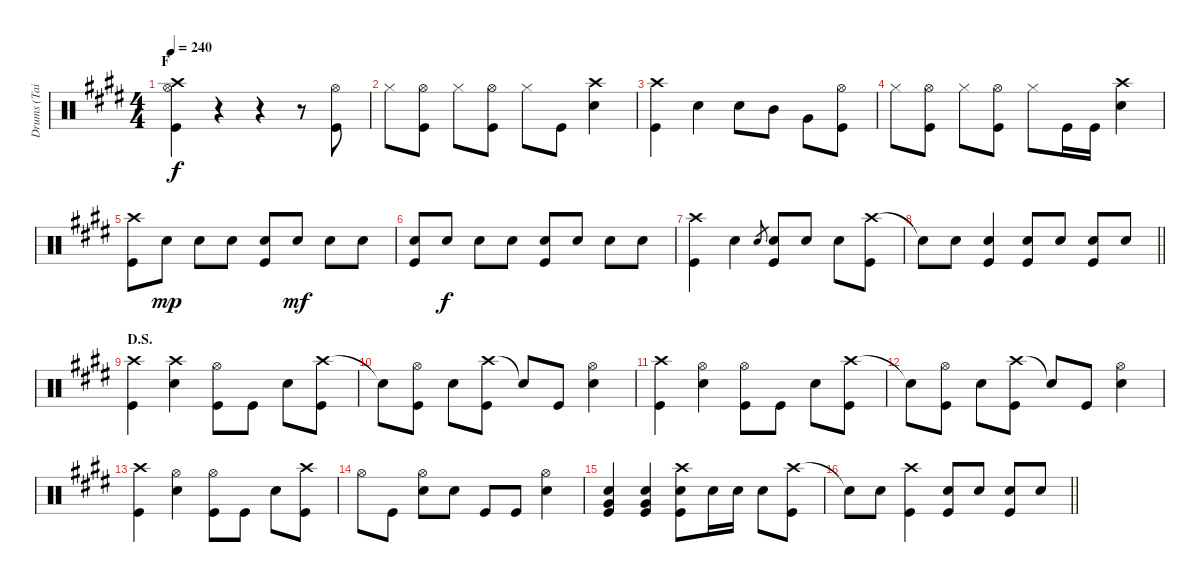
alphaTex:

\track ("Drums (Tainaka Ritsu)" "Drums (Tai") {instrument percussion}
\staff {score}
\articulation defaults
\ts (4 4)
\section ("" "F")
\tempo 240
\clef neutral
\ks e
("Crash high (hit)" "Hi-Hat (open)" "Kick (hit)").4{dy f} r.4 r.4 r.8 ("Hi-Hat (open)" "Kick (hit)").8 |
"Hi-Hat (closed)".8 ("Hi-Hat (open)" "Kick (hit)").8 "Hi-Hat (closed)".8 ("Hi-Hat (open)" "Kick (hit)").8 "Hi-Hat (closed)".8 "Kick (hit)".8 ("Crash high (hit)" "Snare (hit) 2").4 |
("Crash high (hit)" "Kick (hit)").4 "Snare (hit) 2".4 "Snare (hit) 2".8 "Mid Tom (hit)".8 "Very Low Tom (hit)".8 ("Hi-Hat (open)" "Kick (hit)").8 |
"Hi-Hat (closed)".8 ("Hi-Hat (open)" "Kick (hit)").8 "Hi-Hat (closed)".8 ("Hi-Hat (open)" "Kick (hit)").8 "Hi-Hat (closed)".8 "Kick (hit)".16 "Kick (hit)".16 ("Crash high (hit)" "Snare (hit) 2").4 |
("Crash high (hit)" "Kick (hit)").8 "Snare (hit) 2".8{dy mp} "Snare (hit) 2".8 "Snare (hit) 2".8 ("Snare (hit) 2" "Kick (hit)").8 "Snare (hit) 2".8{dy mf} "Snare (hit) 2".8 "Snare (hit) 2".8 |
("Snare (hit) 2" "Kick (hit)").8 "Snare (hit) 2".8{dy f} "Snare (hit) 2".8 "Snare (hit) 2".8 ("Snare (hit) 2" "Kick (hit)").8 "Snare (hit) 2".8 "Snare (hit) 2".8 "Snare (hit) 2".8 |
("Crash high (hit)" "Kick (hit)").4 "Snare (hit) 2".4 "Snare (hit) 2".8{gr} ("Snare (hit) 2" "Kick (hit)").8 "Snare (hit) 2".8 "Snare (hit) 2".8 ("Crash high (hit)" "Kick (hit)").8 |
\barLineRight lightlight "Snare (hit)"{t}.8 "Snare (hit) 2".8
("Snare (hit) 2" "Kick (hit)").4 ("Snare (hit) 2" "Kick (hit)").8 "Snare (hit) 2".8 ("Snare (hit) 2" "Kick (hit)").8 "Snare (hit) 2".8 |
\section ("" "D.S.")
("Crash high (hit)" "Kick (hit)").4 ("Crash high (hit)" "Snare (hit) 2").4 ("Hi-Hat (open)" "Kick (hit)").8 "Kick (hit)".8 "Snare (hit) 2".8 ("Crash high (hit)" "Kick (hit)").8 |
"Snare (hit)"{t}.8 ("Hi-Hat (open)" "Kick (hit)").8 "Snare (hit) 2".8 ("Crash high (hit)" "Kick (hit)").8 "Snare (hit)"{t}.8 "Kick (hit)".8 ("Hi-Hat (open)" "Snare (hit) 2").4 |
("Crash high (hit)" "Kick (hit)").4 ("Hi-Hat (open)" "Snare (hit) 2").4 ("Hi-Hat (open)" "Kick (hit)").8 "Kick (hit)".8 "Snare (hit) 2".8 ("Crash high (hit)" "Kick (hit)").8 |
"Snare (hit)"{t}.8 ("Hi-Hat (open)" "Kick (hit)").8 "Snare (hit) 2".8 ("Crash high (hit)" "Kick (hit)").8 "Snare (hit)"{t}.8 "Kick (hit)".8 ("Hi-Hat (open)" "Snare (hit) 2").4 |
("Crash high (hit)" "Kick (hit)").4 ("Hi-Hat (open)" "Snare (hit) 2").4 ("Hi-Hat (open)" "Kick (hit)").8 "Kick (hit)".8 "Snare (hit) 2".8 ("Crash high (hit)" "Kick (hit)").8 |
"Hi-Hat (open)".8 "Kick (hit)".8 ("Hi-Hat (open)" "Snare (hit) 2").8 "Snare (hit) 2".8 "Kick (hit)".8 "Kick (hit)".8 ("Hi-Hat (open)" "Snare (hit) 2").4 |
("Snare (hit) 2" "Very Low Tom (hit)" "Kick (hit)").4 ("Snare (hit) 2" "Very Low Tom (hit)" "Kick (hit)").4 ("Crash high (hit)" "Snare (hit) 2" "Kick (hit)").8 "Snare (hit) 2".16 "Snare (hit) 2".16 "Snare (hit) 2".8 ("Crash high (hit)" "Kick (hit)").8 |
\barLineRight lightlight "Snare (hit)"{t}.8 "Snare (hit) 2".8
("Crash high (hit)" "Kick (hit)").4 ("Snare (hit) 2" "Kick (hit)").8 "Snare (hit) 2".8 ("Snare (hit) 2" "Kick (hit)").8 "Snare (hit) 2".8
